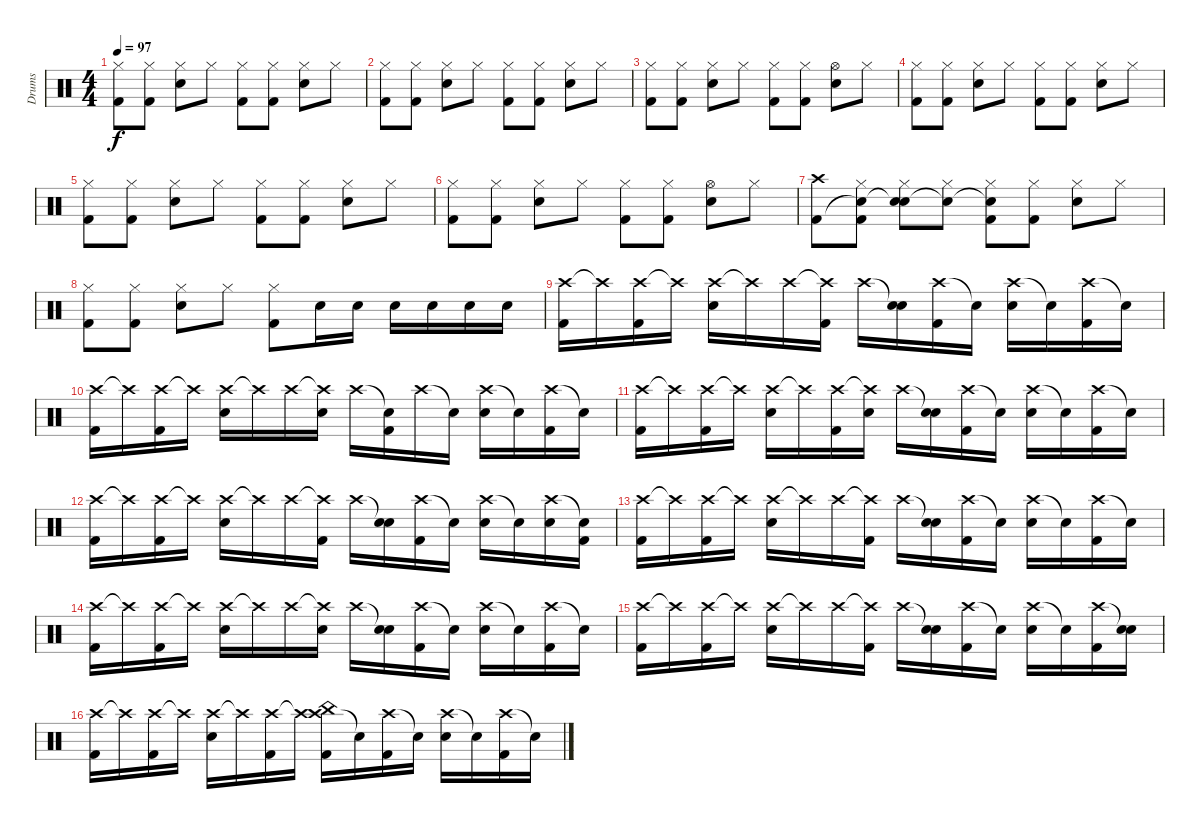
\track ("Drums" "Drums") {instrument percussion}
\staff {score}
\articulation defaults
\ts (4 4)
\tempo 97
\clef neutral
\ks aminor
("Hi-Hat (closed)" "Kick (hit) 2").8{dy f} ("Hi-Hat (closed)" "Kick (hit) 2").8 ("Hi-Hat (closed)" "Snare (hit) 2").8 "Hi-Hat (closed)".8 ("Hi-Hat (closed)" "Kick (hit) 2").8 ("Hi-Hat (closed)" "Kick (hit) 2").8 ("Hi-Hat (closed)" "Snare (hit) 2").8 "Hi-Hat (closed)".8 |
("Hi-Hat (closed)" "Kick (hit) 2").8 ("Hi-Hat (closed)" "Kick (hit) 2").8 ("Hi-Hat (closed)" "Snare (hit) 2").8 "Hi-Hat (closed)".8 ("Hi-Hat (closed)" "Kick (hit) 2").8 ("Hi-Hat (closed)" "Kick (hit) 2").8 ("Hi-Hat (closed)" "Snare (hit) 2").8 "Hi-Hat (closed)".8 |
("Hi-Hat (closed)" "Kick (hit) 2").8 ("Hi-Hat (closed)" "Kick (hit) 2").8 ("Hi-Hat (closed)" "Snare (hit) 2").8 "Hi-Hat (closed)".8 ("Hi-Hat (closed)" "Kick (hit) 2").8 ("Hi-Hat (closed)" "Kick (hit) 2").8 ("Hi-Hat (open)" "Snare (hit) 2").8 "Hi-Hat (closed)".8 |
("Hi-Hat (closed)" "Kick (hit) 2").8 ("Hi-Hat (closed)" "Kick (hit) 2").8 ("Hi-Hat (closed)" "Snare (hit) 2").8 "Hi-Hat (closed)".8 ("Hi-Hat (closed)" "Kick (hit) 2").8 ("Hi-Hat (closed)" "Kick (hit) 2").8 ("Hi-Hat (closed)" "Snare (hit) 2").8 "Hi-Hat (closed)".8 |
("Hi-Hat (closed)" "Kick (hit) 2").8 ("Hi-Hat (closed)" "Kick (hit) 2").8 ("Hi-Hat (closed)" "Snare (hit) 2").8 "Hi-Hat (closed)".8 ("Hi-Hat (closed)" "Kick (hit) 2").8 ("Hi-Hat (closed)" "Kick (hit) 2").8 ("Hi-Hat (closed)" "Snare (hit) 2").8 "Hi-Hat (closed)".8 |
("Hi-Hat (closed)" "Kick (hit) 2").8 ("Hi-Hat (closed)" "Kick (hit) 2").8 ("Hi-Hat (closed)" "Snare (hit) 2").8 "Hi-Hat (closed)".8 ("Hi-Hat (closed)" "Kick (hit) 2").8 ("Hi-Hat (closed)" "Kick (hit) 2").8 ("Hi-Hat (open)" "Snare (hit) 2").8 "Hi-Hat (closed)".8 |
("Crash high (hit)" "Kick (hit) 2").8 ("Hi-Hat (closed)" "Snare (hit)"{t} "Kick (hit) 2").8 ("Hi-Hat (closed)" "Snare (hit)"{t} "Snare (hit) 2").8 ("Hi-Hat (closed)" "Snare (hit)"{t}).8 ("Hi-Hat (closed)" "Snare (hit)"{t} "Kick (hit) 2").8 ("Hi-Hat (closed)" "Kick (hit) 2").8 ("Hi-Hat (closed)" "Snare (hit) 2").8 "Hi-Hat (closed)".8 |
("Hi-Hat (closed)" "Kick (hit) 2").8 ("Hi-Hat (closed)" "Kick (hit) 2").8 ("Hi-Hat (closed)" "Snare (hit) 2").8 "Hi-Hat (closed)".8 ("Hi-Hat (closed)" "Kick (hit) 2").8 "Snare (hit) 2".16 "Snare (hit) 2".16 "Snare (hit) 2".16 "Snare (hit) 2".16 "Snare (hit) 2".16 "Snare (hit) 2".16 |
("Crash high (hit)" "Kick (hit) 2").16 "Crash high (hit)"{t}.16 ("Crash high (hit)" "Kick (hit) 2").16 "Crash high (hit)"{t}.16 ("Crash high (hit)" "Snare (hit) 2").16 "Crash high (hit)"{t}.16 "Crash high (hit)".16 ("Crash high (hit)"{t} "Kick (hit) 2").16 "Crash high (hit)".16 ("Snare (hit)"{t} "Snare (hit) 2").16 ("Crash high (hit)" "Kick (hit) 2").16 "Snare (hit)"{t}.16 ("Crash high (hit)" "Snare (hit) 2").16 "Snare (hit)"{t}.16 ("Crash high (hit)" "Kick (hit) 2").16 "Snare (hit)"{t}.16 |
("Crash high (hit)" "Kick (hit) 2").16 "Crash high (hit)"{t}.16 ("Crash high (hit)" "Kick (hit) 2").16 "Crash high (hit)"{t}.16 ("Crash high (hit)" "Snare (hit) 2").16 "Crash high (hit)"{t}.16 "Crash high (hit)".16 ("Crash high (hit)"{t} "Snare (hit) 2").16 "Crash high (hit)".16 ("Snare (hit)"{t} "Kick (hit) 2").16 "Crash high (hit)".16 "Snare (hit)"{t}.16 ("Crash high (hit)" "Snare (hit) 2").16 "Snare (hit)"{t}.16 ("Crash high (hit)" "Kick (hit) 2").16 "Snare (hit)"{t}.16 |
("Crash high (hit)" "Kick (hit) 2").16 "Crash high (hit)"{t}.16 ("Crash high (hit)" "Kick (hit) 2").16 "Crash high (hit)"{t}.16 ("Crash high (hit)" "Snare (hit) 2").16 "Crash high (hit)"{t}.16 ("Crash high (hit)" "Kick (hit) 2").16 ("Crash high (hit)"{t} "Snare (hit) 2").16 "Crash high (hit)".16 ("Snare (hit)"{t} "Snare (hit) 2").16 ("Crash high (hit)" "Kick (hit) 2").16 "Snare (hit)"{t}.16 ("Crash high (hit)" "Snare (hit) 2").16 "Snare (hit)"{t}.16 ("Crash high (hit)" "Kick (hit) 2").16 "Snare (hit)"{t}.16 |
("Crash high (hit)" "Kick (hit) 2").16 "Crash high (hit)"{t}.16 ("Crash high (hit)" "Kick (hit) 2").16 "Crash high (hit)"{t}.16 ("Crash high (hit)" "Snare (hit) 2").16 "Crash high (hit)"{t}.16 "Crash high (hit)".16 ("Crash high (hit)"{t} "Kick (hit) 2").16 "Crash high (hit)".16 ("Snare (hit)"{t} "Snare (hit) 2").16 ("Crash high (hit)" "Kick (hit) 2").16 "Snare (hit)"{t}.16 ("Crash high (hit)" "Snare (hit) 2").16 "Snare (hit)"{t}.16 ("Crash high (hit)" "Snare (hit) 2").16 ("Snare (hit)"{t} "Kick (hit) 2").16 |
("Crash high (hit)" "Kick (hit) 2").16 "Crash high (hit)"{t}.16 ("Crash high (hit)" "Kick (hit) 2").16 "Crash high (hit)"{t}.16 ("Crash high (hit)" "Snare (hit) 2").16 "Crash high (hit)"{t}.16 "Crash high (hit)".16 ("Crash high (hit)"{t} "Kick (hit) 2").16 "Crash high (hit)".16 ("Snare (hit)"{t} "Snare (hit) 2").16 ("Crash high (hit)" "Kick (hit) 2").16 "Snare (hit)"{t}.16 ("Crash high (hit)" "Snare (hit) 2").16 "Snare (hit)"{t}.16 ("Crash high (hit)" "Kick (hit) 2").16 "Snare (hit)"{t}.16 |
("Crash high (hit)" "Kick (hit) 2").16 "Crash high (hit)"{t}.16 ("Crash high (hit)" "Kick (hit) 2").16 "Crash high (hit)"{t}.16 ("Crash high (hit)" "Snare (hit) 2").16 "Crash high (hit)"{t}.16 "Crash high (hit)".16 ("Crash high (hit)"{t} "Snare (hit) 2").16 "Crash high (hit)".16 ("Snare (hit)"{t} "Snare (hit) 2").16 ("Crash high (hit)" "Kick (hit) 2").16 "Snare (hit)"{t}.16 ("Crash high (hit)" "Snare (hit) 2").16 "Snare (hit)"{t}.16 ("Crash high (hit)" "Kick (hit) 2").16 "Snare (hit)"{t}.16 |
("Crash high (hit)" "Kick (hit) 2").16 "Crash high (hit)"{t}.16 ("Crash high (hit)" "Kick (hit) 2").16 "Crash high (hit)"{t}.16 ("Crash high (hit)" "Snare (hit) 2").16 "Crash high (hit)"{t}.16 "Crash high (hit)".16 ("Crash high (hit)"{t} "Kick (hit) 2").16 "Crash high (hit)".16 ("Snare (hit)"{t} "Snare (hit) 2").16 ("Crash high (hit)" "Kick (hit) 2").16 "Snare (hit)"{t}.16 ("Crash high (hit)" "Snare (hit) 2").16 "Snare (hit)"{t}.16 ("Crash high (hit)" "Kick (hit) 2").16 ("Snare (hit)"{t} "Snare (hit) 2").16 |
("Crash high (hit)" "Kick (hit) 2").16 "Crash high (hit)"{t}.16 ("Crash high (hit)" "Kick (hit) 2").16 "Crash high (hit)"{t}.16 ("Crash high (hit)" "Snare (hit) 2").16 "Crash high (hit)"{t}.16 ("Crash high (hit)" "Kick (hit) 2").16 "Crash high (hit)"{t}.16 ("Crash high (hit)" "China (hit)" "Kick (hit) 2").16 "Snare (hit)"{t}.16 ("Crash high (hit)" "Kick (hit) 2").16 "Snare (hit)"{t}.16 ("Crash high (hit)" "Snare (hit) 2").16 "Snare (hit)"{t}.16 ("Crash high (hit)" "Kick (hit) 2").16 "Snare (hit)"{t}.16
